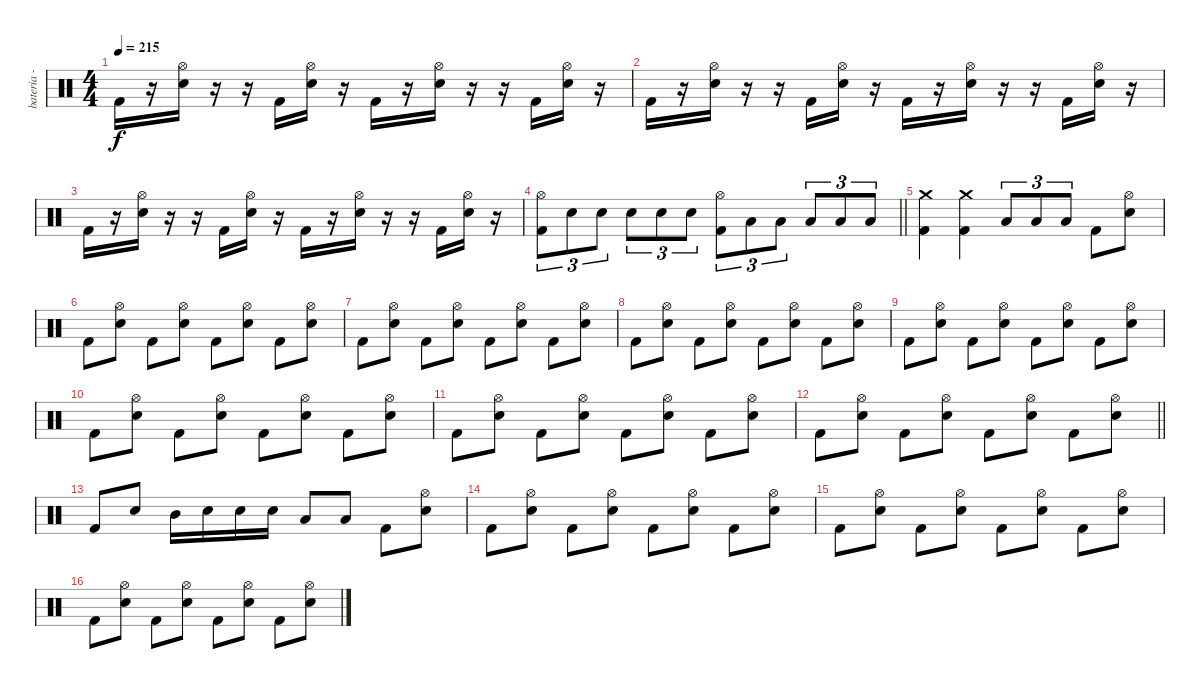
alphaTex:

\track ("bateria - drums" "bateria - ") {instrument percussion}
\staff {score}
\articulation defaults
\ts (4 4)
\tempo 215
\clef neutral
\ks c "Kick (hit) 2".16{dy f}
r.16 ("Hi-Hat (open)" "Electric Snare (hit)").16 r.16 r.16 "Kick (hit) 2".16 ("Hi-Hat (open)" "Electric Snare (hit)").16 r.16 "Kick (hit) 2".16 r.16 ("Hi-Hat (open)" "Electric Snare (hit)").16 r.16 r.16 "Kick (hit) 2".16 ("Hi-Hat (open)" "Electric Snare (hit)").16 r.16 |
"Kick (hit) 2".16 r.16 ("Hi-Hat (open)" "Electric Snare (hit)").16 r.16 r.16 "Kick (hit) 2".16 ("Hi-Hat (open)" "Electric Snare (hit)").16 r.16 "Kick (hit) 2".16 r.16 ("Hi-Hat (open)" "Electric Snare (hit)").16 r.16 r.16 "Kick (hit) 2".16 ("Hi-Hat (open)" "Electric Snare (hit)").16 r.16 |
"Kick (hit) 2".16 r.16 ("Hi-Hat (open)" "Electric Snare (hit)").16 r.16 r.16 "Kick (hit) 2".16 ("Hi-Hat (open)" "Electric Snare (hit)").16 r.16 "Kick (hit) 2".16 r.16 ("Hi-Hat (open)" "Electric Snare (hit)").16 r.16 r.16 "Kick (hit) 2".16 ("Hi-Hat (open)" "Electric Snare (hit)").16 r.16 |
\barLineRight lightlight
("Hi-Hat (open)" "Kick (hit) 2").8{tu (3 2)} "Electric Snare (hit)".8{tu (3 2)} "Electric Snare (hit)".8{tu (3 2)} "Electric Snare (hit)".8{tu (3 2)} "Electric Snare (hit)".8{tu (3 2)} "Electric Snare (hit)".8{tu (3 2)} ("Hi-Hat (open)" "Kick (hit) 2").8{tu (3 2)} "Low Floor Tom (hit)".8{tu (3 2)} "Low Floor Tom (hit)".8{tu (3 2)} "Low Floor Tom (hit)".8{tu (3 2)} "Low Floor Tom (hit)".8{tu (3 2)} "Low Floor Tom (hit)".8{tu (3 2)} |
("Crash medium (hit)" "Kick (hit) 2").4 ("Crash medium (hit)" "Kick (hit) 2").4 "Low Floor Tom (hit)".8{tu (3 2)} "Low Floor Tom (hit)".8{tu (3 2)} "Low Floor Tom (hit)".8{tu (3 2)} "Kick (hit) 2".8 ("Hi-Hat (open)" "Electric Snare (hit)").8 |
"Kick (hit) 2".8 ("Hi-Hat (open)" "Electric Snare (hit)").8 "Kick (hit) 2".8 ("Hi-Hat (open)" "Electric Snare (hit)").8 "Kick (hit) 2".8 ("Hi-Hat (open)" "Electric Snare (hit)").8 "Kick (hit) 2".8 ("Hi-Hat (open)" "Electric Snare (hit)").8 |
"Kick (hit) 2".8 ("Hi-Hat (open)" "Electric Snare (hit)").8 "Kick (hit) 2".8 ("Hi-Hat (open)" "Electric Snare (hit)").8 "Kick (hit) 2".8 ("Hi-Hat (open)" "Electric Snare (hit)").8 "Kick (hit) 2".8 ("Hi-Hat (open)" "Electric Snare (hit)").8 |
"Kick (hit) 2".8 ("Hi-Hat (open)" "Electric Snare (hit)").8 "Kick (hit) 2".8 ("Hi-Hat (open)" "Electric Snare (hit)").8 "Kick (hit) 2".8 ("Hi-Hat (open)" "Electric Snare (hit)").8 "Kick (hit) 2".8 ("Hi-Hat (open)" "Electric Snare (hit)").8 |
"Kick (hit) 2".8 ("Hi-Hat (open)" "Electric Snare (hit)").8 "Kick (hit) 2".8 ("Hi-Hat (open)" "Electric Snare (hit)").8 "Kick (hit) 2".8 ("Hi-Hat (open)" "Electric Snare (hit)").8 "Kick (hit) 2".8 ("Hi-Hat (open)" "Electric Snare (hit)").8 |
"Kick (hit) 2".8 ("Hi-Hat (open)" "Electric Snare (hit)").8 "Kick (hit) 2".8 ("Hi-Hat (open)" "Electric Snare (hit)").8 "Kick (hit) 2".8 ("Hi-Hat (open)" "Electric Snare (hit)").8 "Kick (hit) 2".8 ("Hi-Hat (open)" "Electric Snare (hit)").8 |
"Kick (hit) 2".8 ("Hi-Hat (open)" "Electric Snare (hit)").8 "Kick (hit) 2".8 ("Hi-Hat (open)" "Electric Snare (hit)").8 "Kick (hit) 2".8 ("Hi-Hat (open)" "Electric Snare (hit)").8 "Kick (hit) 2".8 ("Hi-Hat (open)" "Electric Snare (hit)").8 |
\barLineRight lightlight "Kick (hit) 2".8
("Hi-Hat (open)" "Electric Snare (hit)").8 "Kick (hit) 2".8 ("Hi-Hat (open)" "Electric Snare (hit)").8 "Kick (hit) 2".8 ("Hi-Hat (open)" "Electric Snare (hit)").8 "Kick (hit) 2".8 ("Hi-Hat (open)" "Electric Snare (hit)").8 |
"Kick (hit) 2".8 "Electric Snare (hit)".8 "Mid Tom (hit)".16 "Electric Snare (hit)".16 "Electric Snare (hit)".16 "Electric Snare (hit)".16 "Low Floor Tom (hit)".8 "Low Floor Tom (hit)".8 "Kick (hit) 2".8 ("Hi-Hat (open)" "Electric Snare (hit)").8 |
"Kick (hit) 2".8 ("Hi-Hat (open)" "Electric Snare (hit)").8 "Kick (hit) 2".8 ("Hi-Hat (open)" "Electric Snare (hit)").8 "Kick (hit) 2".8 ("Hi-Hat (open)" "Electric Snare (hit)").8 "Kick (hit) 2".8 ("Hi-Hat (open)" "Electric Snare (hit)").8 |
"Kick (hit) 2".8 ("Hi-Hat (open)" "Electric Snare (hit)").8 "Kick (hit) 2".8 ("Hi-Hat (open)" "Electric Snare (hit)").8 "Kick (hit) 2".8 ("Hi-Hat (open)" "Electric Snare (hit)").8 "Kick (hit) 2".8 ("Hi-Hat (open)" "Electric Snare (hit)").8 |
"Kick (hit) 2".8 ("Hi-Hat (open)" "Electric Snare (hit)").8 "Kick (hit) 2".8 ("Hi-Hat (open)" "Electric Snare (hit)").8 "Kick (hit) 2".8 ("Hi-Hat (open)" "Electric Snare (hit)").8 "Kick (hit) 2".8 ("Hi-Hat (open)" "Electric Snare (hit)").8
